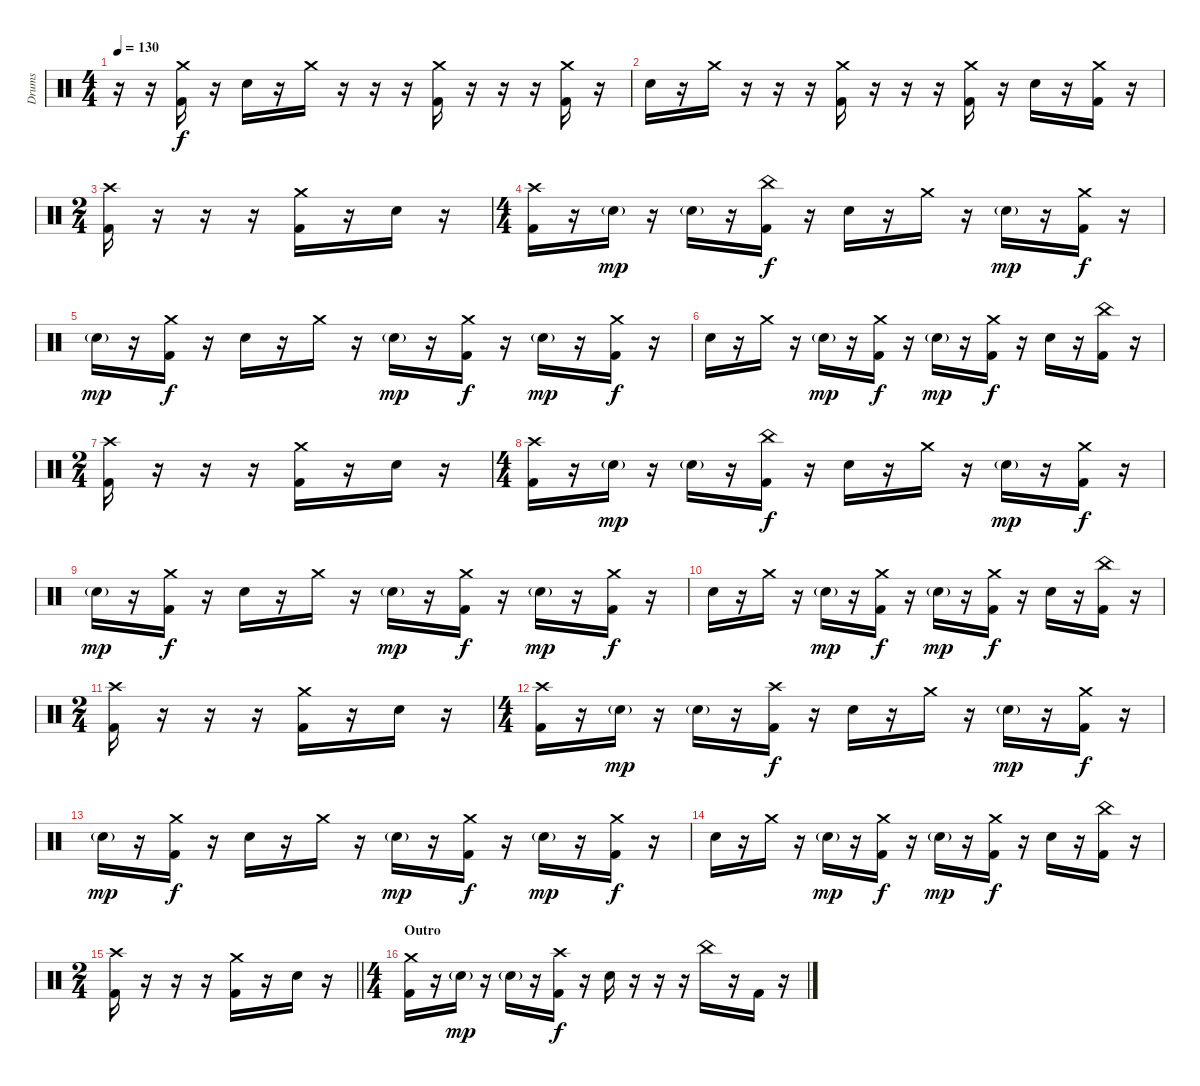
\track ("Drums" "Drums") {instrument percussion}
\staff {score}
\articulation defaults
\ts (4 4)
\tempo 130
\clef neutral
\ks c
r.16{dy f} r.16 ("Crash medium (hit)" "Kick (hit) 2").16 r.16 "Electric Snare (hit)".16 r.16 "Crash medium (hit)".16 r.16 r.16 r.16 ("Crash medium (hit)" "Kick (hit) 2").16 r.16 r.16 r.16 ("Crash medium (hit)" "Kick (hit) 2").16 r.16 |
"Electric Snare (hit)".16 r.16 "Crash medium (hit)".16 r.16 r.16 r.16 ("Crash medium (hit)" "Kick (hit) 2").16 r.16 r.16 r.16 ("Crash medium (hit)" "Kick (hit) 2").16 r.16 "Electric Snare (hit)".16 r.16 ("Crash medium (hit)" "Kick (hit) 2").16 r.16 |
\ts (2 4)
("Crash high (hit)" "Kick (hit) 2").16 r.16 r.16 r.16 ("Crash medium (hit)" "Kick (hit) 2").16 r.16 "Electric Snare (hit)".16 r.16 |
\ts (4 4)
("Crash high (hit)" "Kick (hit) 2").16 r.16 "Electric Snare (hit)"{g}.16{dy mp} r.16 "Electric Snare (hit)"{g}.16 r.16 ("China (hit)" "Kick (hit) 2").16{dy f} r.16 "Electric Snare (hit)".16 r.16 "Crash medium (hit)".16 r.16 "Electric Snare (hit)"{g}.16{dy mp} r.16 ("Crash medium (hit)" "Kick (hit) 2").16{dy f} r.16 |
"Electric Snare (hit)"{g}.16{dy mp} r.16 ("Crash medium (hit)" "Kick (hit) 2").16{dy f} r.16 "Electric Snare (hit)".16 r.16 "Crash medium (hit)".16 r.16 "Electric Snare (hit)"{g}.16{dy mp} r.16 ("Crash medium (hit)" "Kick (hit) 2").16{dy f} r.16 "Electric Snare (hit)"{g}.16{dy mp} r.16 ("Crash medium (hit)" "Kick (hit) 2").16{dy f} r.16 |
"Electric Snare (hit)".16 r.16 "Crash medium (hit)".16 r.16 "Electric Snare (hit)"{g}.16{dy mp} r.16 ("Crash medium (hit)" "Kick (hit) 2").16{dy f} r.16 "Electric Snare (hit)"{g}.16{dy mp} r.16 ("Crash medium (hit)" "Kick (hit) 2").16{dy f} r.16 "Electric Snare (hit)".16 r.16 ("China (hit)" "Kick (hit) 2").16 r.16 |
\ts (2 4)
("Crash high (hit)" "Kick (hit) 2").16 r.16 r.16 r.16 ("Crash medium (hit)" "Kick (hit) 2").16 r.16 "Electric Snare (hit)".16 r.16 |
\ts (4 4)
("Crash high (hit)" "Kick (hit) 2").16 r.16 "Electric Snare (hit)"{g}.16{dy mp} r.16 "Electric Snare (hit)"{g}.16 r.16 ("China (hit)" "Kick (hit) 2").16{dy f} r.16 "Electric Snare (hit)".16 r.16 "Crash medium (hit)".16 r.16 "Electric Snare (hit)"{g}.16{dy mp} r.16 ("Crash medium (hit)" "Kick (hit) 2").16{dy f} r.16 |
"Electric Snare (hit)"{g}.16{dy mp} r.16 ("Crash medium (hit)" "Kick (hit) 2").16{dy f} r.16 "Electric Snare (hit)".16 r.16 "Crash medium (hit)".16 r.16 "Electric Snare (hit)"{g}.16{dy mp} r.16 ("Crash medium (hit)" "Kick (hit) 2").16{dy f} r.16 "Electric Snare (hit)"{g}.16{dy mp} r.16 ("Crash medium (hit)" "Kick (hit) 2").16{dy f} r.16 |
"Electric Snare (hit)".16 r.16 "Crash medium (hit)".16 r.16 "Electric Snare (hit)"{g}.16{dy mp} r.16 ("Crash medium (hit)" "Kick (hit) 2").16{dy f} r.16 "Electric Snare (hit)"{g}.16{dy mp} r.16 ("Crash medium (hit)" "Kick (hit) 2").16{dy f} r.16 "Electric Snare (hit)".16 r.16 ("China (hit)" "Kick (hit) 2").16 r.16 |
\ts (2 4)
("Crash high (hit)" "Kick (hit) 2").16 r.16 r.16 r.16 ("Crash medium (hit)" "Kick (hit) 2").16 r.16 "Electric Snare (hit)".16 r.16 |
\ts (4 4)
("Crash high (hit)" "Kick (hit) 2").16 r.16 "Electric Snare (hit)"{g}.16{dy mp} r.16 "Electric Snare (hit)"{g}.16 r.16 ("Crash high (hit)" "Kick (hit) 2").16{dy f} r.16 "Electric Snare (hit)".16 r.16 "Crash medium (hit)".16 r.16 "Electric Snare (hit)"{g}.16{dy mp} r.16 ("Crash medium (hit)" "Kick (hit) 2").16{dy f} r.16 |
"Electric Snare (hit)"{g}.16{dy mp} r.16 ("Crash medium (hit)" "Kick (hit) 2").16{dy f} r.16 "Electric Snare (hit)".16 r.16 "Crash medium (hit)".16 r.16 "Electric Snare (hit)"{g}.16{dy mp} r.16 ("Crash medium (hit)" "Kick (hit) 2").16{dy f} r.16 "Electric Snare (hit)"{g}.16{dy mp} r.16 ("Crash medium (hit)" "Kick (hit) 2").16{dy f} r.16 |
"Electric Snare (hit)".16 r.16 "Crash medium (hit)".16 r.16 "Electric Snare (hit)"{g}.16{dy mp} r.16 ("Crash medium (hit)" "Kick (hit) 2").16{dy f} r.16 "Electric Snare (hit)"{g}.16{dy mp} r.16 ("Crash medium (hit)" "Kick (hit) 2").16{dy f} r.16 "Electric Snare (hit)".16 r.16 ("China (hit)" "Kick (hit) 2").16 r.16 |
\ts (2 4)
\barLineRight lightlight
("Crash high (hit)" "Kick (hit) 2").16 r.16 r.16 r.16 ("Crash medium (hit)" "Kick (hit) 2").16 r.16 "Electric Snare (hit)".16 r.16 |
\ts (4 4)
\section ("" "Outro")
("Crash medium (hit)" "Kick (hit) 2").16 r.16 "Electric Snare (hit)"{g}.16{dy mp} r.16 "Electric Snare (hit)"{g}.16 r.16 ("Crash high (hit)" "Kick (hit) 2").16{dy f} r.16 "Electric Snare (hit)".16 r.16 r.16 r.16 "China (hit)".16 r.16 "Kick (hit) 2".16 r.16
